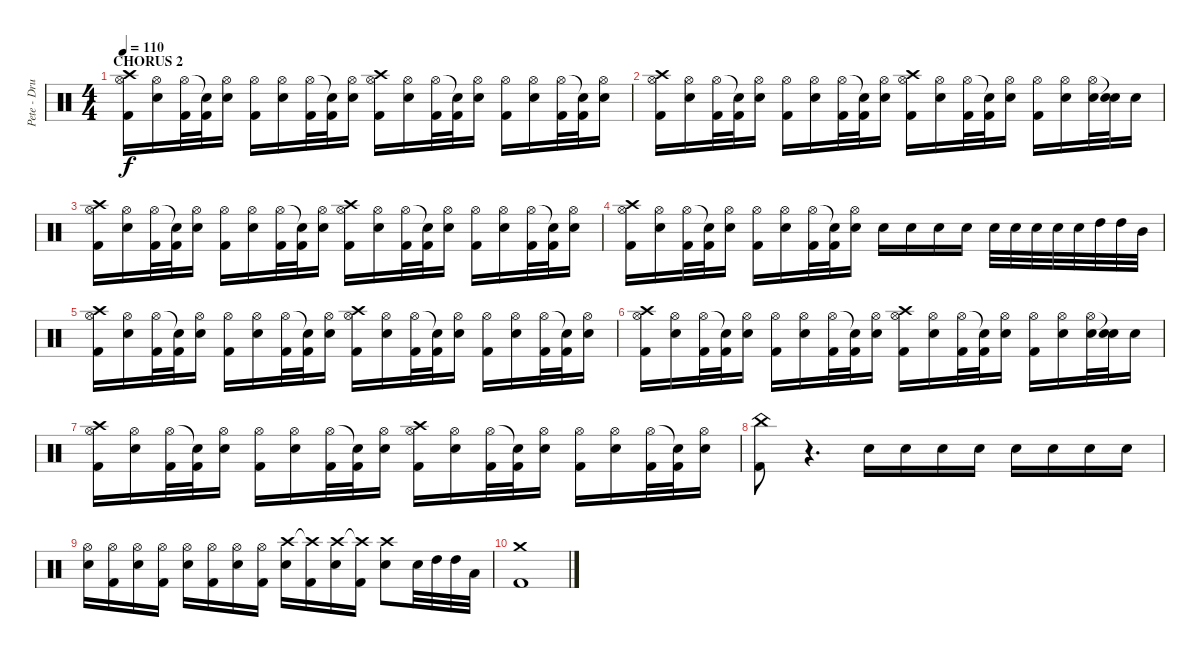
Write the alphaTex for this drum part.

\track ("Pete - Drums" "Pete - Dru") {instrument percussion}
\staff {score}
\articulation defaults
\ts (4 4)
\section ("" "CHORUS 2")
\tempo 110
\clef neutral
\ks c
("Crash high (hit)" "Hi-Hat (open)" "Kick (hit) 2").16{dy f} ("Hi-Hat (open)" "Electric Snare (hit)").16 ("Hi-Hat (open)" "Kick (hit) 2").32 ("Snare (hit)"{t} "Kick (hit) 2").32 ("Hi-Hat (open)" "Electric Snare (hit)").16 ("Hi-Hat (open)" "Kick (hit) 2").16 ("Hi-Hat (open)" "Electric Snare (hit)").16 ("Hi-Hat (open)" "Kick (hit) 2").32 ("Snare (hit)"{t} "Kick (hit) 2").32 ("Hi-Hat (open)" "Electric Snare (hit)").16 ("Crash high (hit)" "Hi-Hat (open)" "Kick (hit) 2").16 ("Hi-Hat (open)" "Electric Snare (hit)").16 ("Hi-Hat (open)" "Kick (hit) 2").32 ("Snare (hit)"{t} "Kick (hit) 2").32 ("Hi-Hat (open)" "Electric Snare (hit)").16 ("Hi-Hat (open)" "Kick (hit) 2").16 ("Hi-Hat (open)" "Electric Snare (hit)").16 ("Hi-Hat (open)" "Kick (hit) 2").32 ("Snare (hit)"{t} "Kick (hit) 2").32 ("Hi-Hat (open)" "Electric Snare (hit)").16 |
("Crash high (hit)" "Hi-Hat (open)" "Kick (hit) 2").16 ("Hi-Hat (open)" "Electric Snare (hit)").16 ("Hi-Hat (open)" "Kick (hit) 2").32 ("Snare (hit)"{t} "Kick (hit) 2").32 ("Hi-Hat (open)" "Electric Snare (hit)").16 ("Hi-Hat (open)" "Kick (hit) 2").16 ("Hi-Hat (open)" "Electric Snare (hit)").16 ("Hi-Hat (open)" "Kick (hit) 2").32 ("Snare (hit)"{t} "Kick (hit) 2").32 ("Hi-Hat (open)" "Electric Snare (hit)").16 ("Crash high (hit)" "Hi-Hat (open)" "Kick (hit) 2").16 ("Hi-Hat (open)" "Electric Snare (hit)").16 ("Hi-Hat (open)" "Kick (hit) 2").32 ("Snare (hit)"{t} "Kick (hit) 2").32 ("Hi-Hat (open)" "Electric Snare (hit)").16 ("Hi-Hat (open)" "Kick (hit) 2").16 ("Hi-Hat (open)" "Electric Snare (hit)").16 ("Hi-Hat (open)" "Electric Snare (hit)").32 ("Snare (hit)"{t} "Electric Snare (hit)").32 "Electric Snare (hit)".16 |
("Crash high (hit)" "Hi-Hat (open)" "Kick (hit) 2").16 ("Hi-Hat (open)" "Electric Snare (hit)").16 ("Hi-Hat (open)" "Kick (hit) 2").32 ("Snare (hit)"{t} "Kick (hit) 2").32 ("Hi-Hat (open)" "Electric Snare (hit)").16 ("Hi-Hat (open)" "Kick (hit) 2").16 ("Hi-Hat (open)" "Electric Snare (hit)").16 ("Hi-Hat (open)" "Kick (hit) 2").32 ("Snare (hit)"{t} "Kick (hit) 2").32 ("Hi-Hat (open)" "Electric Snare (hit)").16 ("Crash high (hit)" "Hi-Hat (open)" "Kick (hit) 2").16 ("Hi-Hat (open)" "Electric Snare (hit)").16 ("Hi-Hat (open)" "Kick (hit) 2").32 ("Snare (hit)"{t} "Kick (hit) 2").32 ("Hi-Hat (open)" "Electric Snare (hit)").16 ("Hi-Hat (open)" "Kick (hit) 2").16 ("Hi-Hat (open)" "Electric Snare (hit)").16 ("Hi-Hat (open)" "Kick (hit) 2").32 ("Snare (hit)"{t} "Kick (hit) 2").32 ("Hi-Hat (open)" "Electric Snare (hit)").16 |
("Crash high (hit)" "Hi-Hat (open)" "Kick (hit) 2").16 ("Hi-Hat (open)" "Electric Snare (hit)").16 ("Hi-Hat (open)" "Kick (hit) 2").32 ("Snare (hit)"{t} "Kick (hit) 2").32 ("Hi-Hat (open)" "Electric Snare (hit)").16 ("Hi-Hat (open)" "Kick (hit) 2").16 ("Hi-Hat (open)" "Electric Snare (hit)").16 ("Hi-Hat (open)" "Kick (hit) 2").32 ("Snare (hit)"{t} "Kick (hit) 2").32 ("Hi-Hat (open)" "Electric Snare (hit)").16 "Electric Snare (hit)".16 "Electric Snare (hit)".16 "Electric Snare (hit)".16 "Electric Snare (hit)".16 "Electric Snare (hit)".32 "Electric Snare (hit)".32 "Electric Snare (hit)".32 "Electric Snare (hit)".32 "Electric Snare (hit)".32 "High Tom (hit)".32 "High Tom (hit)".32 "Mid Tom (hit)".32 |
("Crash high (hit)" "Hi-Hat (open)" "Kick (hit) 2").16 ("Hi-Hat (open)" "Electric Snare (hit)").16 ("Hi-Hat (open)" "Kick (hit) 2").32 ("Snare (hit)"{t} "Kick (hit) 2").32 ("Hi-Hat (open)" "Electric Snare (hit)").16 ("Hi-Hat (open)" "Kick (hit) 2").16 ("Hi-Hat (open)" "Electric Snare (hit)").16 ("Hi-Hat (open)" "Kick (hit) 2").32 ("Snare (hit)"{t} "Kick (hit) 2").32 ("Hi-Hat (open)" "Electric Snare (hit)").16 ("Crash high (hit)" "Hi-Hat (open)" "Kick (hit) 2").16 ("Hi-Hat (open)" "Electric Snare (hit)").16 ("Hi-Hat (open)" "Kick (hit) 2").32 ("Snare (hit)"{t} "Kick (hit) 2").32 ("Hi-Hat (open)" "Electric Snare (hit)").16 ("Hi-Hat (open)" "Kick (hit) 2").16 ("Hi-Hat (open)" "Electric Snare (hit)").16 ("Hi-Hat (open)" "Kick (hit) 2").32 ("Snare (hit)"{t} "Kick (hit) 2").32 ("Hi-Hat (open)" "Electric Snare (hit)").16 |
("Crash high (hit)" "Hi-Hat (open)" "Kick (hit) 2").16 ("Hi-Hat (open)" "Electric Snare (hit)").16 ("Hi-Hat (open)" "Kick (hit) 2").32 ("Snare (hit)"{t} "Kick (hit) 2").32 ("Hi-Hat (open)" "Electric Snare (hit)").16 ("Hi-Hat (open)" "Kick (hit) 2").16 ("Hi-Hat (open)" "Electric Snare (hit)").16 ("Hi-Hat (open)" "Kick (hit) 2").32 ("Snare (hit)"{t} "Kick (hit) 2").32 ("Hi-Hat (open)" "Electric Snare (hit)").16 ("Crash high (hit)" "Hi-Hat (open)" "Kick (hit) 2").16 ("Hi-Hat (open)" "Electric Snare (hit)").16 ("Hi-Hat (open)" "Kick (hit) 2").32 ("Snare (hit)"{t} "Kick (hit) 2").32 ("Hi-Hat (open)" "Electric Snare (hit)").16 ("Hi-Hat (open)" "Kick (hit) 2").16 ("Hi-Hat (open)" "Electric Snare (hit)").16 ("Hi-Hat (open)" "Electric Snare (hit)").32 ("Snare (hit)"{t} "Electric Snare (hit)").32 "Electric Snare (hit)".16 |
("Crash high (hit)" "Hi-Hat (open)" "Kick (hit) 2").16 ("Hi-Hat (open)" "Electric Snare (hit)").16 ("Hi-Hat (open)" "Kick (hit) 2").32 ("Snare (hit)"{t} "Kick (hit) 2").32 ("Hi-Hat (open)" "Electric Snare (hit)").16 ("Hi-Hat (open)" "Kick (hit) 2").16 ("Hi-Hat (open)" "Electric Snare (hit)").16 ("Hi-Hat (open)" "Kick (hit) 2").32 ("Snare (hit)"{t} "Kick (hit) 2").32 ("Hi-Hat (open)" "Electric Snare (hit)").16 ("Crash high (hit)" "Hi-Hat (open)" "Kick (hit) 2").16 ("Hi-Hat (open)" "Electric Snare (hit)").16 ("Hi-Hat (open)" "Kick (hit) 2").32 ("Snare (hit)"{t} "Kick (hit) 2").32 ("Hi-Hat (open)" "Electric Snare (hit)").16 ("Hi-Hat (open)" "Kick (hit) 2").16 ("Hi-Hat (open)" "Electric Snare (hit)").16 ("Hi-Hat (open)" "Kick (hit) 2").32 ("Snare (hit)"{t} "Kick (hit) 2").32 ("Hi-Hat (open)" "Electric Snare (hit)").16 |
("China (hit)" "Kick (hit) 2").8 r.4{d} "Electric Snare (hit)".16 "Electric Snare (hit)".16 "Electric Snare (hit)".16 "Electric Snare (hit)".16 "Electric Snare (hit)".16 "Electric Snare (hit)".16 "Electric Snare (hit)".16 "Electric Snare (hit)".16 |
("Hi-Hat (open)" "Electric Snare (hit)").16 ("Hi-Hat (open)" "Kick (hit) 2").16 ("Hi-Hat (open)" "Electric Snare (hit)").16 ("Hi-Hat (open)" "Kick (hit) 2").16 ("Hi-Hat (open)" "Electric Snare (hit)").16 ("Hi-Hat (open)" "Kick (hit) 2").16 ("Hi-Hat (open)" "Electric Snare (hit)").16 ("Hi-Hat (open)" "Kick (hit) 2").16 ("Crash high (hit)" "Electric Snare (hit)").16 ("Crash high (hit)"{t} "Kick (hit) 2").16 ("Crash high (hit)" "Electric Snare (hit)").16 ("Crash high (hit)"{t} "Kick (hit) 2").16 ("Crash high (hit)" "Electric Snare (hit)").8 "Electric Snare (hit)".32 "High Tom (hit)".32 "High Tom (hit)".32 "Low Tom (hit)".32 |
("Crash medium (hit)" "Kick (hit) 2").1
